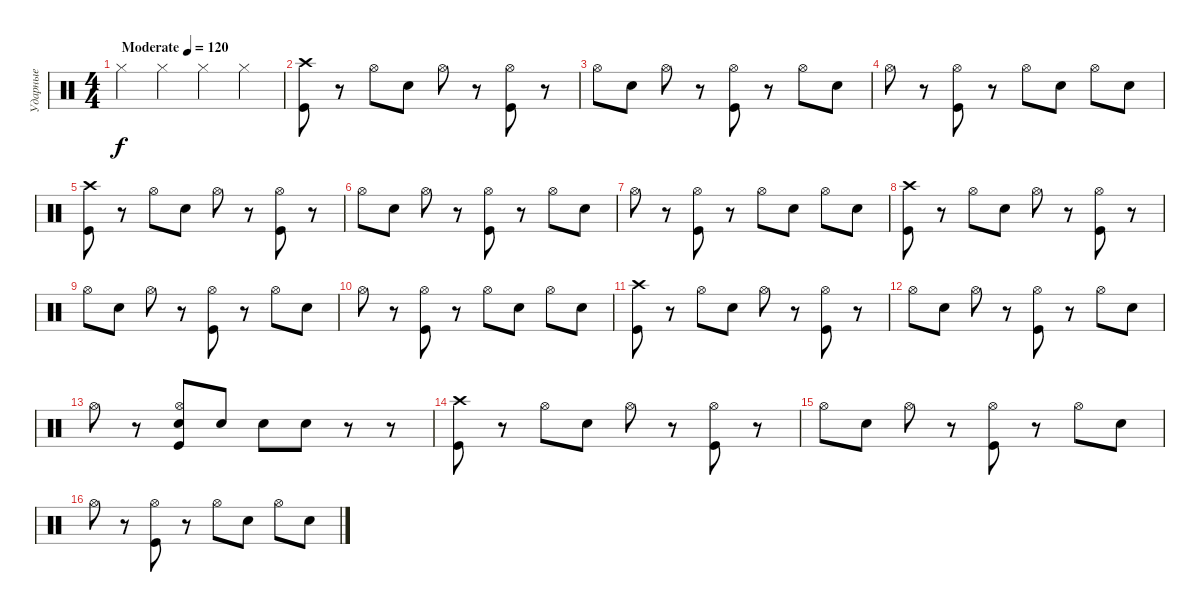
\track ("Ударные" "Ударные") {instrument percussion}
\staff {score}
\articulation defaults
\ts (4 4)
\tempo (120 "Moderate")
\clef neutral
\ks c "Hi-Hat (closed)".4{dy f} "Hi-Hat (closed)".4 "Hi-Hat (closed)".4 "Hi-Hat (closed)".4
|
("Crash high (hit)" "Kick (hit)").8 r.8 "Hi-Hat (open)".8 "Snare (hit) 2".8 "Hi-Hat (open)".8 r.8 ("Hi-Hat (open)" "Kick (hit)").8 r.8 |
"Hi-Hat (open)".8 "Snare (hit) 2".8 "Hi-Hat (open)".8 r.8 ("Hi-Hat (open)" "Kick (hit)").8 r.8 "Hi-Hat (open)".8 "Snare (hit) 2".8 |
"Hi-Hat (open)".8 r.8 ("Hi-Hat (open)" "Kick (hit)").8 r.8 "Hi-Hat (open)".8 "Snare (hit) 2".8 "Hi-Hat (open)".8 "Snare (hit) 2".8 |
("Crash high (hit)" "Kick (hit)").8 r.8 "Hi-Hat (open)".8 "Snare (hit) 2".8 "Hi-Hat (open)".8 r.8 ("Hi-Hat (open)" "Kick (hit)").8 r.8 |
"Hi-Hat (open)".8 "Snare (hit) 2".8 "Hi-Hat (open)".8 r.8 ("Hi-Hat (open)" "Kick (hit)").8 r.8 "Hi-Hat (open)".8 "Snare (hit) 2".8 |
"Hi-Hat (open)".8 r.8 ("Hi-Hat (open)" "Kick (hit)").8 r.8 "Hi-Hat (open)".8 "Snare (hit) 2".8 "Hi-Hat (open)".8 "Snare (hit) 2".8 |
("Crash high (hit)" "Kick (hit)").8 r.8 "Hi-Hat (open)".8 "Snare (hit) 2".8 "Hi-Hat (open)".8 r.8 ("Hi-Hat (open)" "Kick (hit)").8 r.8 |
"Hi-Hat (open)".8 "Snare (hit) 2".8 "Hi-Hat (open)".8 r.8 ("Hi-Hat (open)" "Kick (hit)").8 r.8 "Hi-Hat (open)".8 "Snare (hit) 2".8 |
"Hi-Hat (open)".8 r.8 ("Hi-Hat (open)" "Kick (hit)").8 r.8 "Hi-Hat (open)".8 "Snare (hit) 2".8 "Hi-Hat (open)".8 "Snare (hit) 2".8 |
("Crash high (hit)" "Kick (hit)").8 r.8 "Hi-Hat (open)".8 "Snare (hit) 2".8 "Hi-Hat (open)".8 r.8 ("Hi-Hat (open)" "Kick (hit)").8 r.8 |
"Hi-Hat (open)".8 "Snare (hit) 2".8 "Hi-Hat (open)".8 r.8 ("Hi-Hat (open)" "Kick (hit)").8 r.8 "Hi-Hat (open)".8 "Snare (hit) 2".8 |
"Hi-Hat (open)".8 r.8 ("Hi-Hat (open)" "Snare (hit) 2" "Kick (hit)").8 "Snare (hit) 2".8 "Snare (hit) 2".8 "Snare (hit) 2".8 r.8 r.8 |
("Crash high (hit)" "Kick (hit)").8 r.8 "Hi-Hat (open)".8 "Snare (hit) 2".8 "Hi-Hat (open)".8 r.8 ("Hi-Hat (open)" "Kick (hit)").8 r.8 |
"Hi-Hat (open)".8 "Snare (hit) 2".8 "Hi-Hat (open)".8 r.8 ("Hi-Hat (open)" "Kick (hit)").8 r.8 "Hi-Hat (open)".8 "Snare (hit) 2".8 |
"Hi-Hat (open)".8 r.8 ("Hi-Hat (open)" "Kick (hit)").8 r.8 "Hi-Hat (open)".8 "Snare (hit) 2".8 "Hi-Hat (open)".8 "Snare (hit) 2".8
